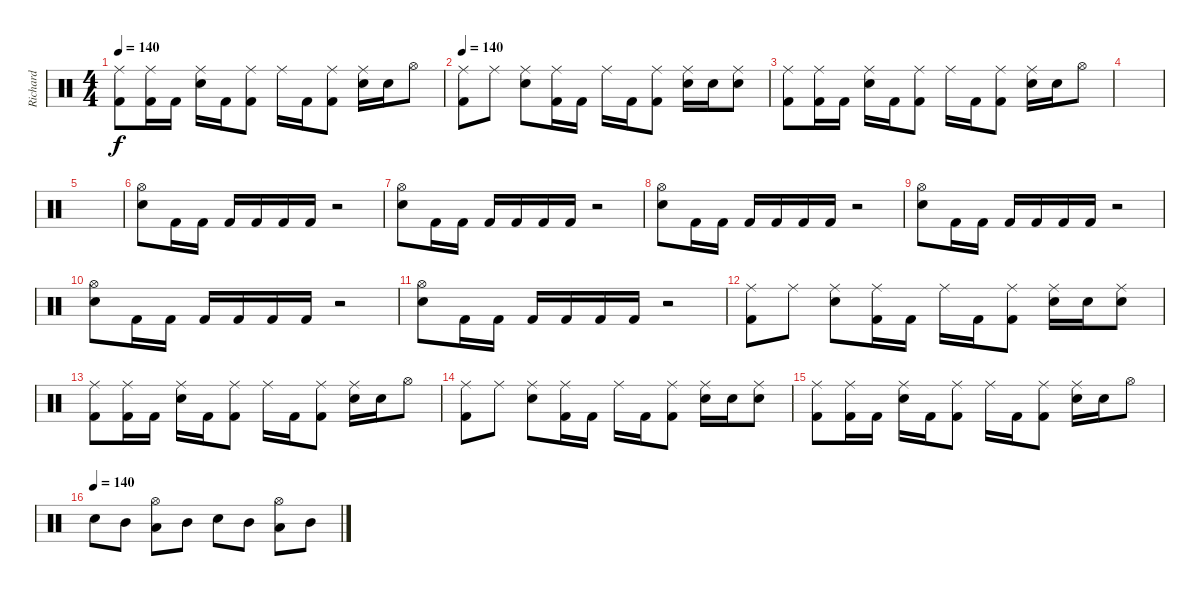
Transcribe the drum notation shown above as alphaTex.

\track ("Richard" "Richard") {instrument percussion}
\staff {score}
\articulation defaults
\ts (4 4)
\tempo 140
\clef neutral
\ks c
("Ride (middle)" "Kick (hit) 2").8{dy f} ("Ride (middle)" "Kick (hit) 2").16 "Kick (hit) 2".16 ("Ride (middle)" "Snare (hit) 2").16 "Kick (hit) 2".16 ("Ride (middle)" "Kick (hit) 2").8 "Ride (middle)".16 "Kick (hit) 2".16 ("Ride (middle)" "Kick (hit) 2").8 ("Ride (middle)" "Snare (hit) 2").16 "Snare (hit) 2".16 "Hi-Hat (open)".8 |
\tempo 140
("Ride (middle)" "Kick (hit) 2").8 "Ride (middle)".8 ("Ride (middle)" "Snare (hit) 2").8 ("Ride (middle)" "Kick (hit) 2").16 "Kick (hit) 2".16 "Ride (middle)".16 "Kick (hit) 2".16 ("Ride (middle)" "Kick (hit) 2").8 ("Ride (middle)" "Snare (hit) 2").16 "Snare (hit) 2".16 ("Ride (middle)" "Snare (hit) 2").8 |
("Ride (middle)" "Kick (hit) 2").8 ("Ride (middle)" "Kick (hit) 2").16 "Kick (hit) 2".16 ("Ride (middle)" "Snare (hit) 2").16 "Kick (hit) 2".16 ("Ride (middle)" "Kick (hit) 2").8 "Ride (middle)".16 "Kick (hit) 2".16 ("Ride (middle)" "Kick (hit) 2").8 ("Ride (middle)" "Snare (hit) 2").16 "Snare (hit) 2".16 "Hi-Hat (open)".8 |
|
|
("Hi-Hat (open)" "Snare (hit) 2").8 "Kick (hit) 2".16 "Kick (hit) 2".16 "Kick (hit) 2".16 "Kick (hit) 2".16 "Kick (hit) 2".16 "Kick (hit) 2".16 r.2 |
("Hi-Hat (open)" "Snare (hit) 2").8 "Kick (hit) 2".16 "Kick (hit) 2".16 "Kick (hit) 2".16 "Kick (hit) 2".16 "Kick (hit) 2".16 "Kick (hit) 2".16 r.2 |
("Hi-Hat (open)" "Snare (hit) 2").8 "Kick (hit) 2".16 "Kick (hit) 2".16 "Kick (hit) 2".16 "Kick (hit) 2".16 "Kick (hit) 2".16 "Kick (hit) 2".16 r.2 |
("Hi-Hat (open)" "Snare (hit) 2").8 "Kick (hit) 2".16 "Kick (hit) 2".16 "Kick (hit) 2".16 "Kick (hit) 2".16 "Kick (hit) 2".16 "Kick (hit) 2".16 r.2 |
("Hi-Hat (open)" "Snare (hit) 2").8 "Kick (hit) 2".16 "Kick (hit) 2".16 "Kick (hit) 2".16 "Kick (hit) 2".16 "Kick (hit) 2".16 "Kick (hit) 2".16 r.2 |
("Hi-Hat (open)" "Snare (hit) 2").8 "Kick (hit) 2".16 "Kick (hit) 2".16 "Kick (hit) 2".16 "Kick (hit) 2".16 "Kick (hit) 2".16 "Kick (hit) 2".16 r.2 |
("Ride (middle)" "Kick (hit) 2").8 "Ride (middle)".8 ("Ride (middle)" "Snare (hit) 2").8 ("Ride (middle)" "Kick (hit) 2").16 "Kick (hit) 2".16 "Ride (middle)".16 "Kick (hit) 2".16 ("Ride (middle)" "Kick (hit) 2").8 ("Ride (middle)" "Snare (hit) 2").16 "Snare (hit) 2".16 ("Ride (middle)" "Snare (hit) 2").8 |
("Ride (middle)" "Kick (hit) 2").8 ("Ride (middle)" "Kick (hit) 2").16 "Kick (hit) 2".16 ("Ride (middle)" "Snare (hit) 2").16 "Kick (hit) 2".16 ("Ride (middle)" "Kick (hit) 2").8 "Ride (middle)".16 "Kick (hit) 2".16 ("Ride (middle)" "Kick (hit) 2").8 ("Ride (middle)" "Snare (hit) 2").16 "Snare (hit) 2".16 "Hi-Hat (open)".8 |
("Ride (middle)" "Kick (hit) 2").8 "Ride (middle)".8 ("Ride (middle)" "Snare (hit) 2").8 ("Ride (middle)" "Kick (hit) 2").16 "Kick (hit) 2".16 "Ride (middle)".16 "Kick (hit) 2".16 ("Ride (middle)" "Kick (hit) 2").8 ("Ride (middle)" "Snare (hit) 2").16 "Snare (hit) 2".16 ("Ride (middle)" "Snare (hit) 2").8 |
("Ride (middle)" "Kick (hit) 2").8 ("Ride (middle)" "Kick (hit) 2").16 "Kick (hit) 2".16 ("Ride (middle)" "Snare (hit) 2").16 "Kick (hit) 2".16 ("Ride (middle)" "Kick (hit) 2").8 "Ride (middle)".16 "Kick (hit) 2".16 ("Ride (middle)" "Kick (hit) 2").8 ("Ride (middle)" "Snare (hit) 2").16 "Snare (hit) 2".16 "Hi-Hat (open)".8 |
\tempo (140)
"Snare (hit) 2".8 "Mid Tom (hit)".8 ("Hi-Hat (open)" "Low Floor Tom (hit)").8 "Mid Tom (hit)".8 "Snare (hit) 2".8 "Mid Tom (hit)".8 ("Hi-Hat (open)" "Low Floor Tom (hit)").8 "Mid Tom (hit)".8
